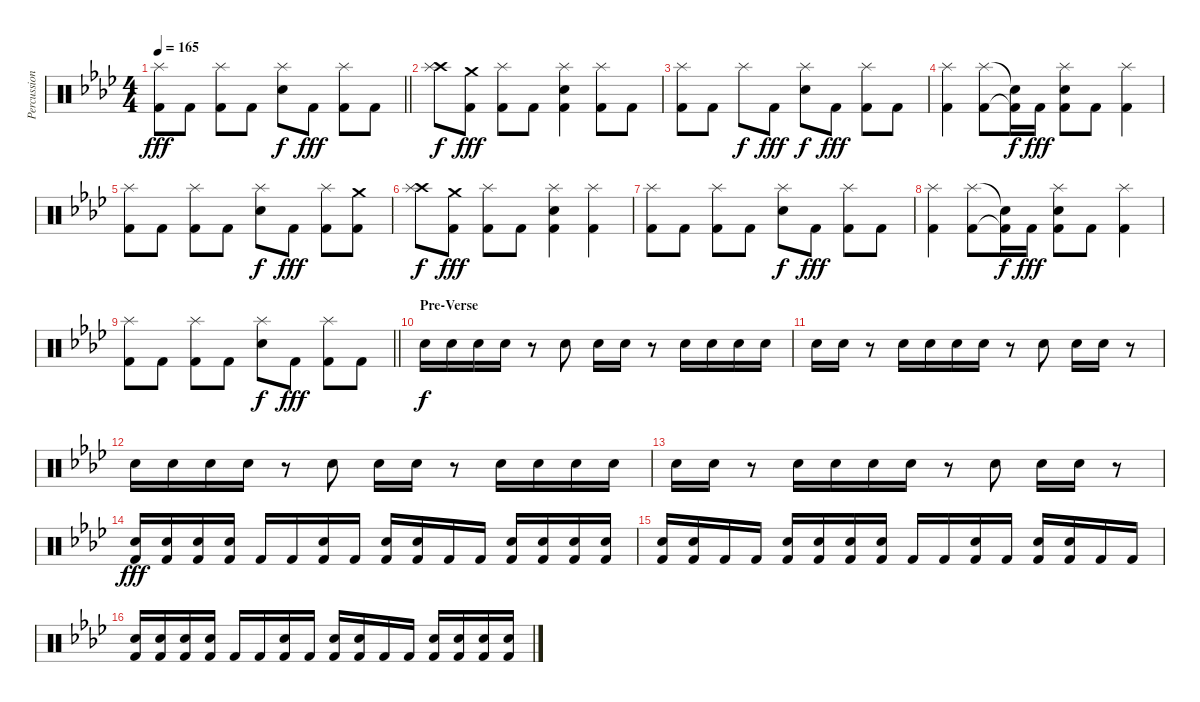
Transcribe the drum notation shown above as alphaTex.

\track ("Percussion" "Percussion") {instrument percussion}
\staff {score}
\articulation defaults
\ts (4 4)
\tempo 165
\clef neutral
\barLineRight lightlight
\ks ab
("Splash (hit)" "Kick (hit) 2").8{dy fff} "Kick (hit) 2".8 ("Splash (hit)" "Kick (hit) 2").8 "Kick (hit) 2".8 ("Splash (hit)" "Electric Snare (hit)").8{dy f} "Kick (hit) 2".8{dy fff} ("Splash (hit)" "Kick (hit) 2").8 "Kick (hit) 2".8 |
\section ("" "")
("Crash high (hit)" "Splash (hit)").8{dy f} ("Crash medium (hit)" "Kick (hit) 2").8{dy fff} ("Splash (hit)" "Kick (hit) 2").8 "Kick (hit) 2".8 ("Splash (hit)" "Electric Snare (hit)" "Kick (hit) 2").4 ("Splash (hit)" "Kick (hit) 2").8 "Kick (hit) 2".8 |
("Splash (hit)" "Kick (hit) 2").8 "Kick (hit) 2".8 "Splash (hit)".8{dy f} "Kick (hit) 2".8{dy fff} ("Splash (hit)" "Electric Snare (hit)").8{dy f} "Kick (hit) 2".8{dy fff} ("Splash (hit)" "Kick (hit) 2").8 "Kick (hit) 2".8 |
("Splash (hit)" "Kick (hit) 2").4 ("Splash (hit)" "Kick (hit) 2").8 ("Snare (hit)"{t} "Kick (hit) 2"{t}).16{dy f} "Kick (hit) 2".16{dy fff} ("Splash (hit)" "Electric Snare (hit)" "Kick (hit) 2").8 "Kick (hit) 2".8 ("Splash (hit)" "Kick (hit) 2").4 |
("Splash (hit)" "Kick (hit) 2").8 "Kick (hit) 2".8 ("Splash (hit)" "Kick (hit) 2").8 "Kick (hit) 2".8 ("Splash (hit)" "Electric Snare (hit)").8{dy f} "Kick (hit) 2".8{dy fff} ("Splash (hit)" "Kick (hit) 2").8 ("Crash medium (hit)" "Kick (hit) 2").8 |
("Crash high (hit)" "Splash (hit)").8{dy f} ("Crash medium (hit)" "Kick (hit) 2").8{dy fff} ("Splash (hit)" "Kick (hit) 2").8 "Kick (hit) 2".8 ("Splash (hit)" "Electric Snare (hit)" "Kick (hit) 2").4 ("Splash (hit)" "Kick (hit) 2").4 |
("Splash (hit)" "Kick (hit) 2").8 "Kick (hit) 2".8 ("Splash (hit)" "Kick (hit) 2").8 "Kick (hit) 2".8 ("Splash (hit)" "Electric Snare (hit)").8{dy f} "Kick (hit) 2".8{dy fff} ("Splash (hit)" "Kick (hit) 2").8 "Kick (hit) 2".8 |
("Splash (hit)" "Kick (hit) 2").4 ("Splash (hit)" "Kick (hit) 2").8 ("Snare (hit)"{t} "Kick (hit) 2"{t}).16{dy f} "Kick (hit) 2".16{dy fff} ("Splash (hit)" "Electric Snare (hit)" "Kick (hit) 2").8 "Kick (hit) 2".8 ("Splash (hit)" "Kick (hit) 2").4 |
\barLineRight lightlight
("Splash (hit)" "Kick (hit) 2").8 "Kick (hit) 2".8 ("Splash (hit)" "Kick (hit) 2").8 "Kick (hit) 2".8 ("Splash (hit)" "Electric Snare (hit)").8{dy f} "Kick (hit) 2".8{dy fff} ("Splash (hit)" "Kick (hit) 2").8 "Kick (hit) 2".8 |
\section ("" "Pre-Verse")
"Electric Snare (hit)".16{dy f} "Electric Snare (hit)".16 "Electric Snare (hit)".16 "Electric Snare (hit)".16 r.8 "Electric Snare (hit)".8 "Electric Snare (hit)".16 "Electric Snare (hit)".16 r.8 "Electric Snare (hit)".16 "Electric Snare (hit)".16 "Electric Snare (hit)".16 "Electric Snare (hit)".16 |
"Electric Snare (hit)".16 "Electric Snare (hit)".16 r.8 "Electric Snare (hit)".16 "Electric Snare (hit)".16 "Electric Snare (hit)".16 "Electric Snare (hit)".16 r.8 "Electric Snare (hit)".8 "Electric Snare (hit)".16 "Electric Snare (hit)".16 r.8 |
"Electric Snare (hit)".16 "Electric Snare (hit)".16 "Electric Snare (hit)".16 "Electric Snare (hit)".16 r.8 "Electric Snare (hit)".8 "Electric Snare (hit)".16 "Electric Snare (hit)".16 r.8 "Electric Snare (hit)".16 "Electric Snare (hit)".16 "Electric Snare (hit)".16 "Electric Snare (hit)".16 |
"Electric Snare (hit)".16 "Electric Snare (hit)".16 r.8 "Electric Snare (hit)".16 "Electric Snare (hit)".16 "Electric Snare (hit)".16 "Electric Snare (hit)".16 r.8 "Electric Snare (hit)".8 "Electric Snare (hit)".16 "Electric Snare (hit)".16 r.8 |
("Electric Snare (hit)" "Kick (hit) 2").16{dy fff} ("Electric Snare (hit)" "Kick (hit) 2").16 ("Electric Snare (hit)" "Kick (hit) 2").16 ("Electric Snare (hit)" "Kick (hit) 2").16 "Kick (hit) 2".16 "Kick (hit) 2".16 ("Electric Snare (hit)" "Kick (hit) 2").16 "Kick (hit) 2".16 ("Electric Snare (hit)" "Kick (hit) 2").16 ("Electric Snare (hit)" "Kick (hit) 2").16 "Kick (hit) 2".16 "Kick (hit) 2".16 ("Electric Snare (hit)" "Kick (hit) 2").16 ("Electric Snare (hit)" "Kick (hit) 2").16 ("Electric Snare (hit)" "Kick (hit) 2").16 ("Electric Snare (hit)" "Kick (hit) 2").16 |
("Electric Snare (hit)" "Kick (hit) 2").16 ("Electric Snare (hit)" "Kick (hit) 2").16 "Kick (hit) 2".16 "Kick (hit) 2".16 ("Electric Snare (hit)" "Kick (hit) 2").16 ("Electric Snare (hit)" "Kick (hit) 2").16 ("Electric Snare (hit)" "Kick (hit) 2").16 ("Electric Snare (hit)" "Kick (hit) 2").16 "Kick (hit) 2".16 "Kick (hit) 2".16 ("Electric Snare (hit)" "Kick (hit) 2").16 "Kick (hit) 2".16 ("Electric Snare (hit)" "Kick (hit) 2").16 ("Electric Snare (hit)" "Kick (hit) 2").16 "Kick (hit) 2".16 "Kick (hit) 2".16 |
("Electric Snare (hit)" "Kick (hit) 2").16 ("Electric Snare (hit)" "Kick (hit) 2").16 ("Electric Snare (hit)" "Kick (hit) 2").16 ("Electric Snare (hit)" "Kick (hit) 2").16 "Kick (hit) 2".16 "Kick (hit) 2".16 ("Electric Snare (hit)" "Kick (hit) 2").16 "Kick (hit) 2".16 ("Electric Snare (hit)" "Kick (hit) 2").16 ("Electric Snare (hit)" "Kick (hit) 2").16 "Kick (hit) 2".16 "Kick (hit) 2".16 ("Electric Snare (hit)" "Kick (hit) 2").16 ("Electric Snare (hit)" "Kick (hit) 2").16 ("Electric Snare (hit)" "Kick (hit) 2").16 ("Electric Snare (hit)" "Kick (hit) 2").16
